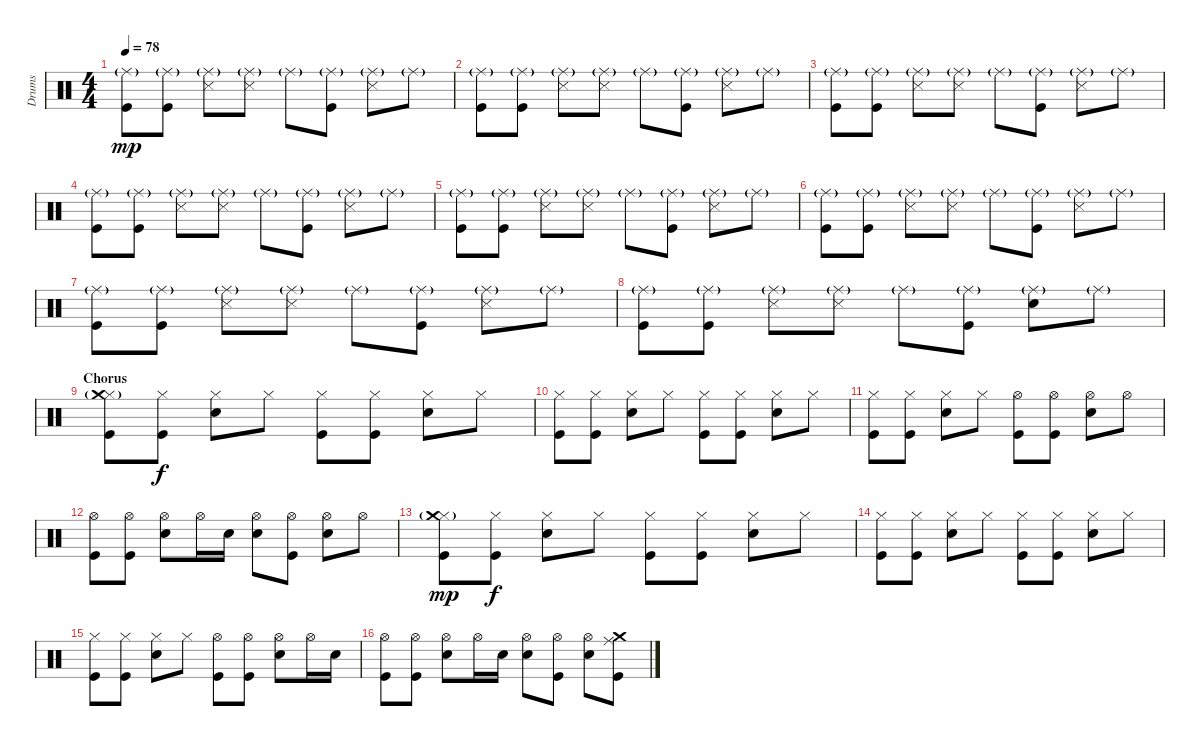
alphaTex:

\track ("Drums" "Drums") {instrument percussion}
\staff {score}
\articulation defaults
\ts (4 4)
\section ("" "")
\tempo 78
\clef neutral
\ks c
("Ride (middle)"{g} "Kick (hit)").8{dy mp} ("Ride (middle)"{g} "Kick (hit)").8 ("Ride (middle)"{g} "Snare (side stick) 3").8 ("Ride (middle)"{g} "Snare (side stick) 3").8 "Ride (middle)"{g}.8 ("Ride (middle)"{g} "Kick (hit)").8 ("Ride (middle)"{g} "Snare (side stick) 3").8 "Ride (middle)"{g}.8 |
("Ride (middle)"{g} "Kick (hit)").8 ("Ride (middle)"{g} "Kick (hit)").8 ("Ride (middle)"{g} "Snare (side stick) 3").8 ("Ride (middle)"{g} "Snare (side stick) 3").8 "Ride (middle)"{g}.8 ("Ride (middle)"{g} "Kick (hit)").8 ("Ride (middle)"{g} "Snare (side stick) 3").8 "Ride (middle)"{g}.8 |
("Ride (middle)"{g} "Kick (hit)").8 ("Ride (middle)"{g} "Kick (hit)").8 ("Ride (middle)"{g} "Snare (side stick) 3").8 ("Ride (middle)"{g} "Snare (side stick) 3").8 "Ride (middle)"{g}.8 ("Ride (middle)"{g} "Kick (hit)").8 ("Ride (middle)"{g} "Snare (side stick) 3").8 "Ride (middle)"{g}.8 |
("Ride (middle)"{g} "Kick (hit)").8 ("Ride (middle)"{g} "Kick (hit)").8 ("Ride (middle)"{g} "Snare (side stick) 3").8 ("Ride (middle)"{g} "Snare (side stick) 3").8 "Ride (middle)"{g}.8 ("Ride (middle)"{g} "Kick (hit)").8 ("Ride (middle)"{g} "Snare (side stick) 3").8 "Ride (middle)"{g}.8 |
("Ride (middle)"{g} "Kick (hit)").8 ("Ride (middle)"{g} "Kick (hit)").8 ("Ride (middle)"{g} "Snare (side stick) 3").8 ("Ride (middle)"{g} "Snare (side stick) 3").8 "Ride (middle)"{g}.8 ("Ride (middle)"{g} "Kick (hit)").8 ("Ride (middle)"{g} "Snare (side stick) 3").8 "Ride (middle)"{g}.8 |
("Ride (middle)"{g} "Kick (hit)").8 ("Ride (middle)"{g} "Kick (hit)").8 ("Ride (middle)"{g} "Snare (side stick) 3").8 ("Ride (middle)"{g} "Snare (side stick) 3").8 "Ride (middle)"{g}.8 ("Ride (middle)"{g} "Kick (hit)").8 ("Ride (middle)"{g} "Snare (side stick) 3").8 "Ride (middle)"{g}.8 |
("Ride (middle)"{g} "Kick (hit)").8 ("Ride (middle)"{g} "Kick (hit)").8 ("Ride (middle)"{g} "Snare (side stick) 3").8 ("Ride (middle)"{g} "Snare (side stick) 3").8 "Ride (middle)"{g}.8 ("Ride (middle)"{g} "Kick (hit)").8 ("Ride (middle)"{g} "Snare (side stick) 3").8 "Ride (middle)"{g}.8 |
("Ride (middle)"{g} "Kick (hit)").8 ("Ride (middle)"{g} "Kick (hit)").8 ("Ride (middle)"{g} "Snare (side stick) 3").8 ("Ride (middle)"{g} "Snare (side stick) 3").8 "Ride (middle)"{g}.8 ("Ride (middle)"{g} "Kick (hit)").8 ("Ride (middle)"{g} "Snare (hit) 2").8 "Ride (middle)"{g}.8 |
\section ("" "Chorus")
("Hi-Hat (closed)" "Crash medium (hit)"{g} "Kick (hit)").8 ("Hi-Hat (closed)" "Kick (hit)").8{dy f} ("Hi-Hat (closed)" "Snare (hit) 2").8 "Hi-Hat (closed)".8 ("Hi-Hat (closed)" "Kick (hit)").8 ("Hi-Hat (closed)" "Kick (hit)").8 ("Hi-Hat (closed)" "Snare (hit) 2").8 "Hi-Hat (closed)".8 |
("Hi-Hat (closed)" "Kick (hit)").8 ("Hi-Hat (closed)" "Kick (hit)").8 ("Hi-Hat (closed)" "Snare (hit) 2").8 "Hi-Hat (closed)".8 ("Hi-Hat (closed)" "Kick (hit)").8 ("Hi-Hat (closed)" "Kick (hit)").8 ("Hi-Hat (closed)" "Snare (hit) 2").8 "Hi-Hat (closed)".8 |
("Hi-Hat (closed)" "Kick (hit)").8 ("Hi-Hat (closed)" "Kick (hit)").8 ("Hi-Hat (closed)" "Snare (hit) 2").8 "Hi-Hat (closed)".8 ("Hi-Hat (open)" "Kick (hit)").8 ("Hi-Hat (open)" "Kick (hit)").8 ("Hi-Hat (open)" "Snare (hit) 2").8 "Hi-Hat (open)".8 |
("Hi-Hat (open)" "Kick (hit)").8 ("Hi-Hat (open)" "Kick (hit)").8 ("Hi-Hat (open)" "Snare (hit) 2").8 "Hi-Hat (open)".16 "Snare (hit) 2".16 ("Hi-Hat (open)" "Snare (hit) 2").8 ("Hi-Hat (open)" "Kick (hit)").8 ("Hi-Hat (open)" "Snare (hit) 2").8 "Hi-Hat (open)".8 |
("Hi-Hat (closed)" "Crash medium (hit)"{g} "Kick (hit)").8{dy mp} ("Hi-Hat (closed)" "Kick (hit)").8{dy f} ("Hi-Hat (closed)" "Snare (hit) 2").8 "Hi-Hat (closed)".8 ("Hi-Hat (closed)" "Kick (hit)").8 ("Hi-Hat (closed)" "Kick (hit)").8 ("Hi-Hat (closed)" "Snare (hit) 2").8 "Hi-Hat (closed)".8 |
("Hi-Hat (closed)" "Kick (hit)").8 ("Hi-Hat (closed)" "Kick (hit)").8 ("Hi-Hat (closed)" "Snare (hit) 2").8 "Hi-Hat (closed)".8 ("Hi-Hat (closed)" "Kick (hit)").8 ("Hi-Hat (closed)" "Kick (hit)").8 ("Hi-Hat (closed)" "Snare (hit) 2").8 "Hi-Hat (closed)".8 |
("Hi-Hat (closed)" "Kick (hit)").8 ("Hi-Hat (closed)" "Kick (hit)").8 ("Hi-Hat (closed)" "Snare (hit) 2").8 "Hi-Hat (closed)".8 ("Hi-Hat (open)" "Kick (hit)").8 ("Hi-Hat (open)" "Kick (hit)").8 ("Hi-Hat (open)" "Snare (hit) 2").8 "Hi-Hat (open)".16 "Snare (hit) 2".16 |
("Hi-Hat (open)" "Kick (hit)").8 ("Hi-Hat (open)" "Kick (hit)").8 ("Hi-Hat (open)" "Snare (hit) 2").8 "Hi-Hat (open)".16 "Snare (hit) 2".16 ("Hi-Hat (open)" "Snare (hit) 2").8 ("Hi-Hat (open)" "Kick (hit)").8 ("Hi-Hat (open)" "Snare (hit) 2").8 ("Ride (middle)" "Crash medium (hit)" "Kick (hit)").8
